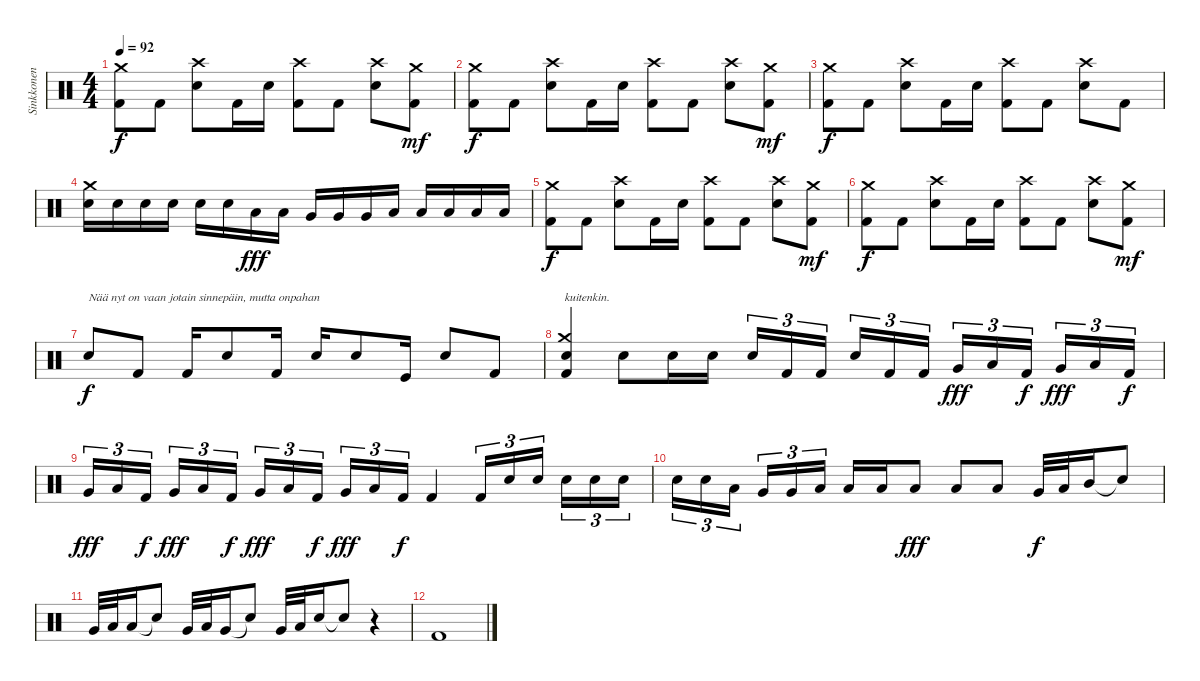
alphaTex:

\track ("Sinkkonen" "Sinkkonen") {instrument percussion}
\staff {score}
\articulation defaults
\ts (4 4)
\tempo 92
\clef neutral
\ks c
("Kick (hit) 2" "Crash medium (hit)").8{dy f} "Kick (hit) 2".8 ("Crash high (hit)" "Snare (hit) 2").8 "Kick (hit) 2".16 "Snare (hit) 2".16 ("Kick (hit) 2" "Crash high (hit)").8 "Kick (hit) 2".8 ("Crash high (hit)" "Snare (hit) 2").8 ("Kick (hit) 2" "Crash medium (hit)").8{dy mf} |
("Kick (hit) 2" "Crash medium (hit)").8{dy f} "Kick (hit) 2".8 ("Crash high (hit)" "Snare (hit) 2").8 "Kick (hit) 2".16 "Snare (hit) 2".16 ("Kick (hit) 2" "Crash high (hit)").8 "Kick (hit) 2".8 ("Crash high (hit)" "Snare (hit) 2").8 ("Kick (hit) 2" "Crash medium (hit)").8{dy mf} |
("Kick (hit) 2" "Crash medium (hit)").8{dy f} "Kick (hit) 2".8 ("Crash high (hit)" "Snare (hit) 2").8 "Kick (hit) 2".16 "Snare (hit) 2".16 ("Kick (hit) 2" "Crash high (hit)").8 "Kick (hit) 2".8 ("Crash high (hit)" "Snare (hit) 2").8 "Kick (hit) 2".8 |
("Crash medium (hit)" "Snare (hit) 2").16 "Snare (hit) 2".16 "Snare (hit) 2".16 "Snare (hit) 2".16 "Snare (hit) 2".16 "Snare (hit) 2".16 "Low Tom (hit)".16{dy fff} "Low Tom (hit)".16 "Very Low Tom (hit)".16 "Very Low Tom (hit)".16 "Very Low Tom (hit)".16 "Low Floor Tom (hit)".16 "Low Floor Tom (hit)".16 "Low Floor Tom (hit)".16 "Low Floor Tom (hit)".16 "Low Floor Tom (hit)".16 |
("Kick (hit) 2" "Crash medium (hit)").8{dy f} "Kick (hit) 2".8 ("Crash high (hit)" "Snare (hit) 2").8 "Kick (hit) 2".16 "Snare (hit) 2".16 ("Kick (hit) 2" "Crash high (hit)").8 "Kick (hit) 2".8 ("Crash high (hit)" "Snare (hit) 2").8 ("Kick (hit) 2" "Crash medium (hit)").8{dy mf} |
("Kick (hit) 2" "Crash medium (hit)").8{dy f} "Kick (hit) 2".8 ("Crash high (hit)" "Snare (hit) 2").8 "Kick (hit) 2".16 "Snare (hit) 2".16 ("Kick (hit) 2" "Crash high (hit)").8 "Kick (hit) 2".8 ("Crash high (hit)" "Snare (hit) 2").8 ("Kick (hit) 2" "Crash medium (hit)").8{dy mf} |
"Snare (hit) 2".8{txt "Nää nyt on vaan jotain sinnepäin, mutta onpahan" dy f} "Kick (hit) 2".8 "Kick (hit) 2".16 "Snare (hit) 2".8 "Kick (hit) 2".16 "Snare (hit) 2".16 "Snare (hit) 2".8 "Kick (hit)".16 "Snare (hit) 2".8 "Kick (hit) 2".8 |
("Kick (hit) 2" "Crash medium (hit)" "Snare (hit) 2").4{txt "kuitenkin."} "Snare (hit) 2".8 "Snare (hit) 2".16 "Snare (hit) 2".16 "Snare (hit) 2".16{tu (3 2)} "Kick (hit) 2".16{tu (3 2)} "Kick (hit) 2".16{tu (3 2)} "Snare (hit) 2".16{tu (3 2)} "Kick (hit) 2".16{tu (3 2)} "Kick (hit) 2".16{tu (3 2)} "Very Low Tom (hit)".16{tu (3 2) dy fff} "Low Floor Tom (hit)".16{tu (3 2)} "Kick (hit) 2".16{tu (3 2) dy f} "Very Low Tom (hit)".16{tu (3 2) dy fff} "Low Floor Tom (hit)".16{tu (3 2)} "Kick (hit) 2".16{tu (3 2) dy f} |
"Very Low Tom (hit)".16{tu (3 2) dy fff} "Low Floor Tom (hit)".16{tu (3 2)} "Kick (hit) 2".16{tu (3 2) dy f} "Very Low Tom (hit)".16{tu (3 2) dy fff} "Low Floor Tom (hit)".16{tu (3 2)} "Kick (hit) 2".16{tu (3 2) dy f} "Very Low Tom (hit)".16{tu (3 2) dy fff} "Low Floor Tom (hit)".16{tu (3 2)} "Kick (hit) 2".16{tu (3 2) dy f} "Very Low Tom (hit)".16{tu (3 2) dy fff} "Low Floor Tom (hit)".16{tu (3 2)} "Kick (hit) 2".16{tu (3 2) dy f} "Kick (hit) 2".4 "Kick (hit) 2".16{tu (3 2)} "Snare (hit) 2".16{tu (3 2)} "Snare (hit) 2".16{tu (3 2)} "Snare (hit) 2".16{tu (3 2)} "Snare (hit) 2".16{tu (3 2)} "Snare (hit) 2".16{tu (3 2)} |
"Snare (hit) 2".16{tu (3 2)} "Snare (hit) 2".16{tu (3 2)} "Low Tom (hit)".16{tu (3 2)} "Very Low Tom (hit)".16{tu (3 2)} "Very Low Tom (hit)".16{tu (3 2)} "Low Floor Tom (hit)".16{tu (3 2)} "Low Floor Tom (hit)".16 "Low Floor Tom (hit)".16 "Low Floor Tom (hit)".8{dy fff} "Low Floor Tom (hit)".8 "Low Floor Tom (hit)".8 "Very Low Tom (hit)".32{dy f} "Low Floor Tom (hit)".32 "Mid Tom (hit)".16 "Snare (hit)"{t}.8 |
"Very Low Tom (hit)".32 "Low Floor Tom (hit)".32 "Low Tom (hit)".16 "Snare (hit)"{t}.8 "Very Low Tom (hit)".32 "Low Floor Tom (hit)".32 "Very Low Tom (hit)".16 "Snare (hit)"{t}.8 "Very Low Tom (hit)".32 "Low Floor Tom (hit)".32 "Snare (hit) 2".16 "Snare (hit)"{t}.8 r.4 |
"Kick (hit) 2".1
